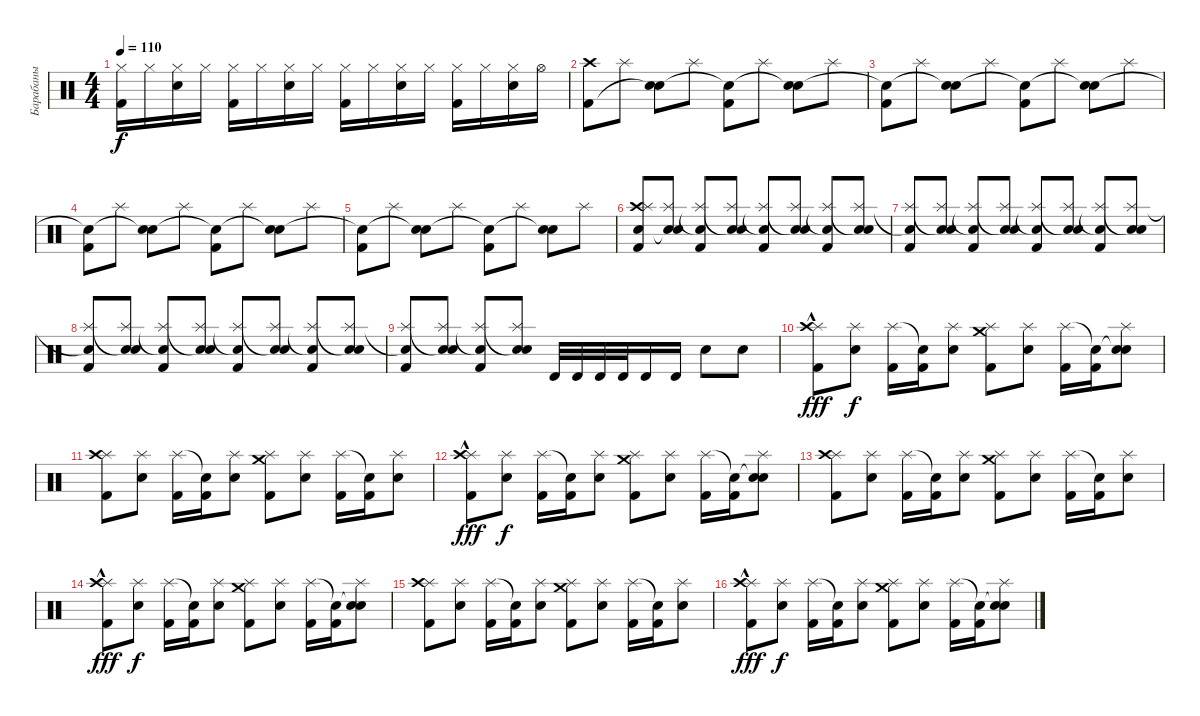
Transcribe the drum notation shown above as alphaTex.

\track ("Барабаны" "Барабаны") {instrument percussion}
\staff {score}
\articulation defaults
\ts (4 4)
\tempo 110
\clef neutral
\ks c
("Kick (hit) 2" "Hi-Hat (closed)").16{dy f} "Hi-Hat (closed)".16 ("Electric Snare (hit)" "Hi-Hat (closed)").16 "Hi-Hat (closed)".16 ("Kick (hit) 2" "Hi-Hat (closed)").16 "Hi-Hat (closed)".16 ("Electric Snare (hit)" "Hi-Hat (closed)").16 "Hi-Hat (closed)".16 ("Kick (hit) 2" "Hi-Hat (closed)").16 "Hi-Hat (closed)".16 ("Electric Snare (hit)" "Hi-Hat (closed)").16 "Hi-Hat (closed)".16 ("Kick (hit) 2" "Hi-Hat (closed)").16 "Hi-Hat (closed)".16 ("Electric Snare (hit)" "Hi-Hat (closed)").16 "Hi-Hat (open)".16 |
("Crash high (hit)" "Kick (hit) 2").8 "Splash (hit)".8 ("Electric Snare (hit)" "Snare (hit)"{t}).8 "Splash (hit)".8 ("Kick (hit) 2" "Snare (hit)"{t}).8 "Splash (hit)".8 ("Electric Snare (hit)" "Snare (hit)"{t}).8 "Splash (hit)".8 |
("Kick (hit) 2" "Snare (hit)"{t}).8 "Splash (hit)".8 ("Electric Snare (hit)" "Snare (hit)"{t}).8 "Splash (hit)".8 ("Kick (hit) 2" "Snare (hit)"{t}).8 "Splash (hit)".8 ("Electric Snare (hit)" "Snare (hit)"{t}).8 "Splash (hit)".8 |
("Kick (hit) 2" "Snare (hit)"{t}).8 "Splash (hit)".8 ("Electric Snare (hit)" "Snare (hit)"{t}).8 "Splash (hit)".8 ("Kick (hit) 2" "Snare (hit)"{t}).8 "Splash (hit)".8 ("Electric Snare (hit)" "Snare (hit)"{t}).8 "Splash (hit)".8 |
("Kick (hit) 2" "Snare (hit)"{t}).8 "Splash (hit)".8 ("Electric Snare (hit)" "Snare (hit)"{t}).8 "Splash (hit)".8 ("Kick (hit) 2" "Snare (hit)"{t}).8 "Splash (hit)".8 ("Electric Snare (hit)" "Snare (hit)"{t}).8 "Splash (hit)".8 |
("Crash high (hit)" "Kick (hit) 2" "Snare (hit)" "Splash (hit)").8 ("Electric Snare (hit)" "Splash (hit)" "Snare (hit)"{t}).8 ("Kick (hit) 2" "Snare (hit)"{t} "Splash (hit)").8 ("Electric Snare (hit)" "Splash (hit)" "Snare (hit)"{t}).8 ("Kick (hit) 2" "Snare (hit)"{t} "Splash (hit)").8 ("Electric Snare (hit)" "Splash (hit)" "Snare (hit)"{t}).8 ("Kick (hit) 2" "Snare (hit)"{t} "Splash (hit)").8 ("Electric Snare (hit)" "Splash (hit)" "Snare (hit)"{t}).8 |
("Kick (hit) 2" "Snare (hit)"{t} "Splash (hit)").8 ("Electric Snare (hit)" "Splash (hit)" "Snare (hit)"{t}).8 ("Kick (hit) 2" "Snare (hit)"{t} "Splash (hit)").8 ("Electric Snare (hit)" "Splash (hit)" "Snare (hit)"{t}).8 ("Kick (hit) 2" "Snare (hit)"{t} "Splash (hit)").8 ("Electric Snare (hit)" "Splash (hit)" "Snare (hit)"{t}).8 ("Kick (hit) 2" "Snare (hit)"{t} "Splash (hit)").8 ("Electric Snare (hit)" "Splash (hit)" "Snare (hit)"{t}).8 |
("Kick (hit) 2" "Snare (hit)"{t} "Splash (hit)").8 ("Electric Snare (hit)" "Splash (hit)" "Snare (hit)"{t}).8 ("Kick (hit) 2" "Snare (hit)"{t} "Splash (hit)").8 ("Electric Snare (hit)" "Splash (hit)" "Snare (hit)"{t}).8 ("Kick (hit) 2" "Snare (hit)"{t} "Splash (hit)").8 ("Electric Snare (hit)" "Splash (hit)" "Snare (hit)"{t}).8 ("Kick (hit) 2" "Snare (hit)"{t} "Splash (hit)").8 ("Electric Snare (hit)" "Splash (hit)" "Snare (hit)"{t}).8 |
("Kick (hit) 2" "Snare (hit)"{t} "Splash (hit)").8 ("Electric Snare (hit)" "Splash (hit)" "Snare (hit)"{t}).8 ("Kick (hit) 2" "Snare (hit)"{t} "Splash (hit)").8 ("Electric Snare (hit)" "Splash (hit)" "Snare (hit)"{t}).8 "Timbale high (hit)".32 "Timbale high (hit)".32 "Timbale high (hit)".32 "Timbale high (hit)".32 "Timbale high (hit)".16 "Timbale high (hit)".16 "Electric Snare (hit)".8 "Electric Snare (hit)".8 |
("Kick (hit) 2" "Splash (hit)"{hac} "Crash high (hit)").8{dy fff} ("Electric Snare (hit)" "Splash (hit)").8{dy f} ("Kick (hit) 2" "Splash (hit)").16 ("Kick (hit) 2" "Snare (hit)"{t}).16 ("Electric Snare (hit)" "Splash (hit)").8 ("Kick (hit) 2" "Crash medium (hit)" "Splash (hit)").8 ("Electric Snare (hit)" "Splash (hit)").8 ("Kick (hit) 2" "Splash (hit)").16 ("Kick (hit) 2" "Snare (hit)"{t}).16 ("Electric Snare (hit)" "Snare (hit)"{t} "Splash (hit)").8 |
("Kick (hit) 2" "Splash (hit)" "Crash high (hit)").8 ("Electric Snare (hit)" "Splash (hit)").8 ("Kick (hit) 2" "Splash (hit)").16 ("Kick (hit) 2" "Snare (hit)"{t}).16 ("Electric Snare (hit)" "Splash (hit)").8 ("Kick (hit) 2" "Crash medium (hit)" "Splash (hit)").8 ("Electric Snare (hit)" "Splash (hit)").8 ("Kick (hit) 2" "Splash (hit)").16 ("Kick (hit) 2" "Snare (hit)"{t}).16 ("Electric Snare (hit)" "Splash (hit)").8 |
("Kick (hit) 2" "Splash (hit)"{hac} "Crash high (hit)").8{dy fff} ("Electric Snare (hit)" "Splash (hit)").8{dy f} ("Kick (hit) 2" "Splash (hit)").16 ("Kick (hit) 2" "Snare (hit)"{t}).16 ("Electric Snare (hit)" "Splash (hit)").8 ("Kick (hit) 2" "Crash medium (hit)" "Splash (hit)").8 ("Electric Snare (hit)" "Splash (hit)").8 ("Kick (hit) 2" "Splash (hit)").16 ("Kick (hit) 2" "Snare (hit)"{t}).16 ("Electric Snare (hit)" "Snare (hit)"{t} "Splash (hit)").8 |
("Kick (hit) 2" "Splash (hit)" "Crash high (hit)").8 ("Electric Snare (hit)" "Splash (hit)").8 ("Kick (hit) 2" "Splash (hit)").16 ("Kick (hit) 2" "Snare (hit)"{t}).16 ("Electric Snare (hit)" "Splash (hit)").8 ("Kick (hit) 2" "Crash medium (hit)" "Splash (hit)").8 ("Electric Snare (hit)" "Splash (hit)").8 ("Kick (hit) 2" "Splash (hit)").16 ("Kick (hit) 2" "Snare (hit)"{t}).16 ("Electric Snare (hit)" "Splash (hit)").8 |
("Kick (hit) 2" "Splash (hit)"{hac} "Crash high (hit)").8{dy fff} ("Electric Snare (hit)" "Splash (hit)").8{dy f} ("Kick (hit) 2" "Splash (hit)").16 ("Kick (hit) 2" "Snare (hit)"{t}).16 ("Electric Snare (hit)" "Splash (hit)").8 ("Kick (hit) 2" "Crash medium (hit)" "Splash (hit)").8 ("Electric Snare (hit)" "Splash (hit)").8 ("Kick (hit) 2" "Splash (hit)").16 ("Kick (hit) 2" "Snare (hit)"{t}).16 ("Electric Snare (hit)" "Snare (hit)"{t} "Splash (hit)").8 |
("Kick (hit) 2" "Splash (hit)" "Crash high (hit)").8 ("Electric Snare (hit)" "Splash (hit)").8 ("Kick (hit) 2" "Splash (hit)").16 ("Kick (hit) 2" "Snare (hit)"{t}).16 ("Electric Snare (hit)" "Splash (hit)").8 ("Kick (hit) 2" "Crash medium (hit)" "Splash (hit)").8 ("Electric Snare (hit)" "Splash (hit)").8 ("Kick (hit) 2" "Splash (hit)").16 ("Kick (hit) 2" "Snare (hit)"{t}).16 ("Electric Snare (hit)" "Splash (hit)").8 |
("Kick (hit) 2" "Splash (hit)"{hac} "Crash high (hit)").8{dy fff} ("Electric Snare (hit)" "Splash (hit)").8{dy f} ("Kick (hit) 2" "Splash (hit)").16 ("Kick (hit) 2" "Snare (hit)"{t}).16 ("Electric Snare (hit)" "Splash (hit)").8 ("Kick (hit) 2" "Crash medium (hit)" "Splash (hit)").8 ("Electric Snare (hit)" "Splash (hit)").8 ("Kick (hit) 2" "Splash (hit)").16 ("Kick (hit) 2" "Snare (hit)"{t}).16 ("Electric Snare (hit)" "Snare (hit)"{t} "Splash (hit)").8
